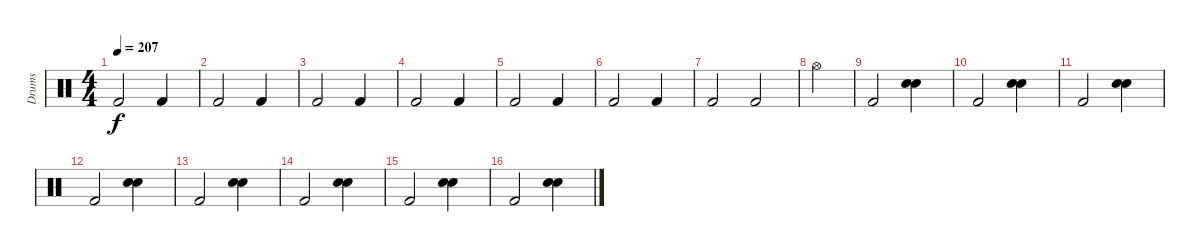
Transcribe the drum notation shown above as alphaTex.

\track ("Drums" "Drums") {instrument percussion}
\staff {score}
\articulation defaults
\ts (4 4)
\tempo 207
\clef neutral
\ks c "Kick (hit) 2".2{dy f} "Kick (hit) 2".4
|
"Kick (hit) 2".2 "Kick (hit) 2".4 |
"Kick (hit) 2".2 "Kick (hit) 2".4 |
"Kick (hit) 2".2 "Kick (hit) 2".4 |
"Kick (hit) 2".2 "Kick (hit) 2".4 |
"Kick (hit) 2".2 "Kick (hit) 2".4 |
"Kick (hit) 2".2 "Kick (hit) 2".2 |
"Hi-Hat (open)".4 |
"Kick (hit) 2".2 ("Snare (hit) 2" "Snare (hit) 2").4 |
"Kick (hit) 2".2 ("Snare (hit) 2" "Snare (hit) 2").4 |
"Kick (hit) 2".2 ("Snare (hit) 2" "Snare (hit) 2").4 |
"Kick (hit) 2".2 ("Snare (hit) 2" "Snare (hit) 2").4 |
"Kick (hit) 2".2 ("Snare (hit) 2" "Snare (hit) 2").4 |
"Kick (hit) 2".2 ("Snare (hit) 2" "Snare (hit) 2").4 |
"Kick (hit) 2".2 ("Snare (hit) 2" "Snare (hit) 2").4 |
"Kick (hit) 2".2 ("Snare (hit) 2" "Snare (hit) 2").4
